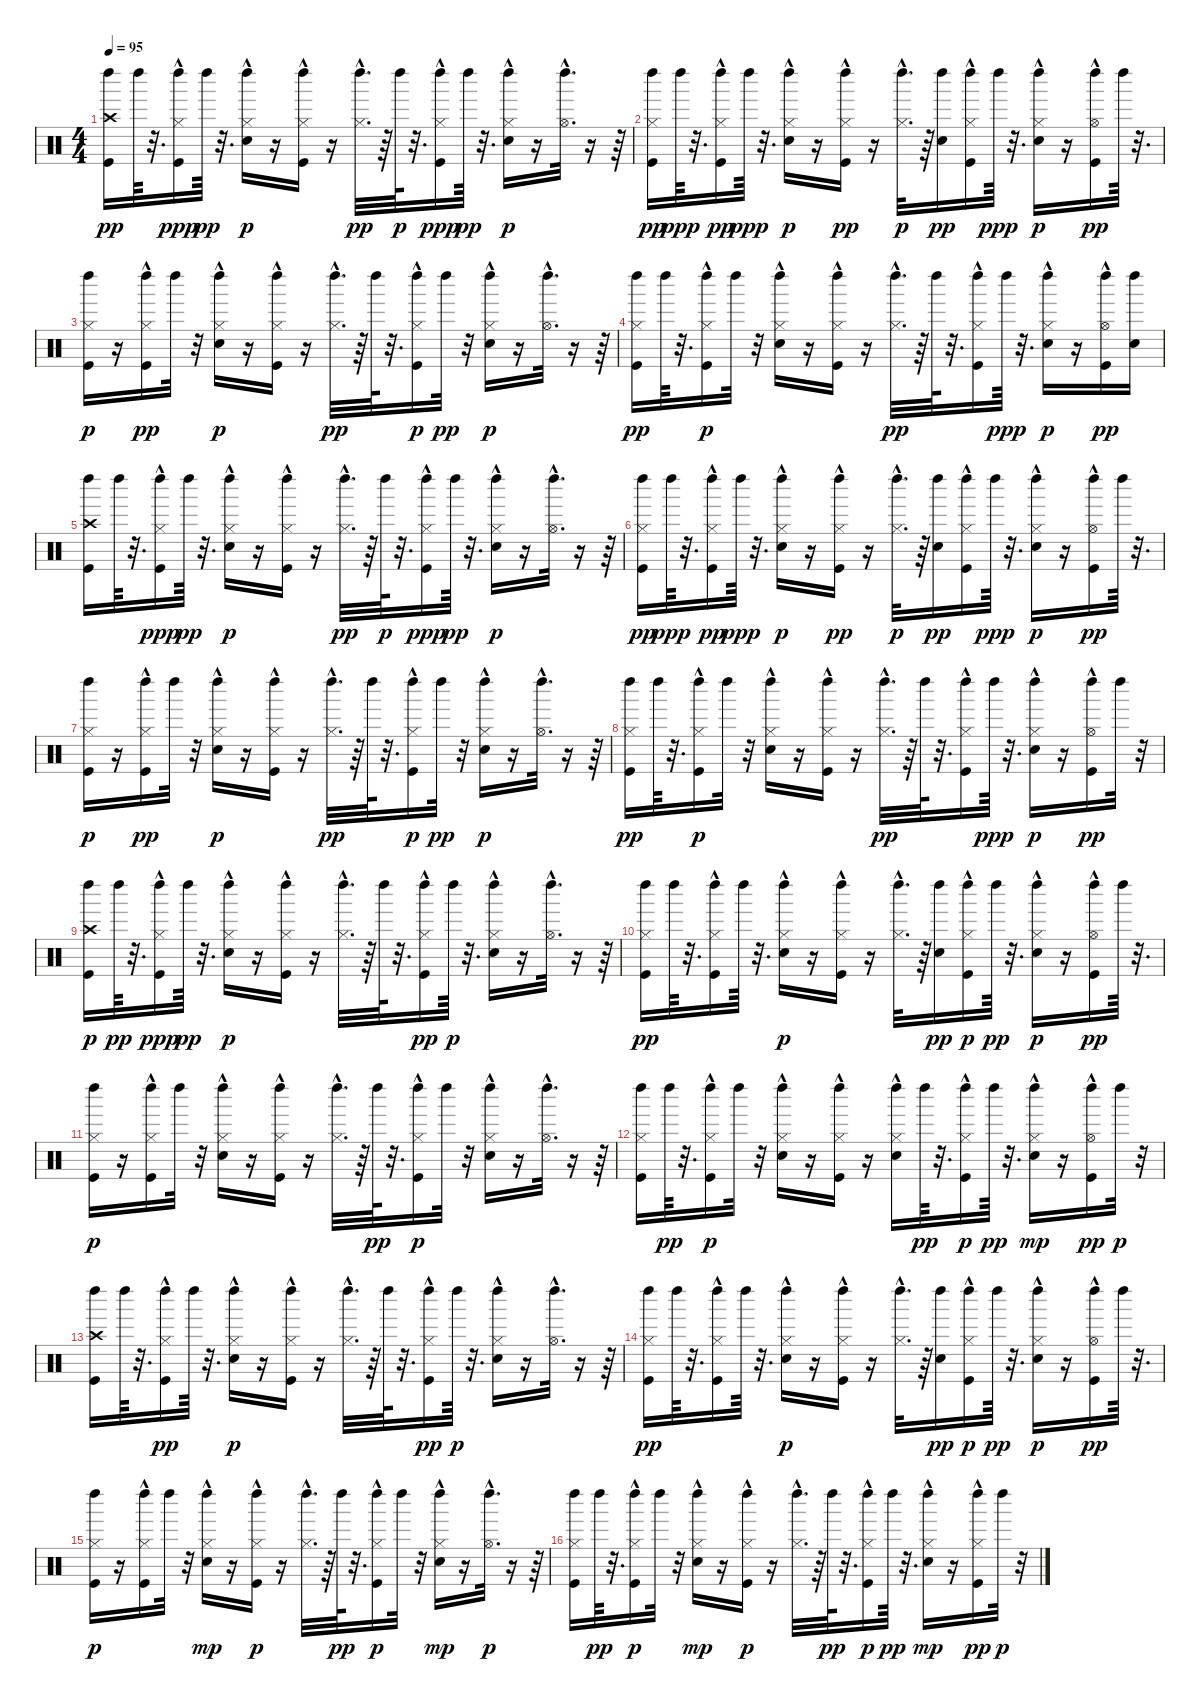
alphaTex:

\track "" {instrument percussion}
\staff {score}
\articulation defaults
\ts (4 4)
\tempo 95
\clef neutral
\ks c
("Kick (hit)" "Crash high (hit)" "Left Maraca (hit)").16{dy pp} "Left Maraca (hit)".64 r.32{d} ("Kick (hit)" "Hi-Hat (closed)"{hac} "Left Maraca (hit)").16{dy ppp} "Left Maraca (hit)".64{dy pp} r.32{d} ("Electric Snare (hit)" "Hi-Hat (closed)"{hac} "Left Maraca (hit)").16{dy p} r.16 ("Kick (hit)" "Hi-Hat (closed)"{hac} "Left Maraca (hit)").16 r.16 ("Hi-Hat (closed)"{hac} "Left Maraca (hit)").32{d dy pp} r.64 "Left Maraca (hit)".64{dy p} r.32{d} ("Kick (hit)" "Hi-Hat (closed)"{hac} "Left Maraca (hit)").16{dy ppp} "Left Maraca (hit)".64{dy pp} r.32{d} ("Electric Snare (hit)" "Hi-Hat (closed)"{hac} "Left Maraca (hit)").16{dy p} r.16 ("Hi-Hat (open)"{hac} "Left Maraca (hit)").32{d} r.16 r.64 |
("Kick (hit)" "Hi-Hat (closed)" "Left Maraca (hit)").16{dy pp} "Left Maraca (hit)".64{dy ppp} r.32{d} ("Kick (hit)" "Hi-Hat (closed)"{hac} "Left Maraca (hit)").16{dy pp} "Left Maraca (hit)".64{dy ppp} r.32{d} ("Electric Snare (hit)" "Hi-Hat (closed)"{hac} "Left Maraca (hit)").16{dy p} r.16 ("Kick (hit)" "Hi-Hat (closed)"{hac} "Left Maraca (hit)").16{dy pp} r.16 ("Hi-Hat (closed)"{hac} "Left Maraca (hit)").32{d dy p} r.64 ("Electric Snare (hit)" "Left Maraca (hit)").16{dy pp} ("Kick (hit)" "Hi-Hat (closed)"{hac} "Left Maraca (hit)").16 "Left Maraca (hit)".64{dy ppp} r.32{d} ("Electric Snare (hit)" "Hi-Hat (closed)"{hac} "Left Maraca (hit)").16{dy p} r.16 ("Kick (hit)" "Hi-Hat (open)"{hac} "Left Maraca (hit)").16{dy pp} "Left Maraca (hit)".64 r.32{d} |
("Kick (hit)" "Hi-Hat (closed)" "Left Maraca (hit)").16{dy p} r.16 ("Kick (hit)" "Hi-Hat (closed)"{hac} "Left Maraca (hit)").16{dy pp} "Left Maraca (hit)".32 r.32 ("Electric Snare (hit)" "Hi-Hat (closed)"{hac} "Left Maraca (hit)").16{dy p} r.16 ("Kick (hit)" "Hi-Hat (closed)"{hac} "Left Maraca (hit)").16 r.16 ("Hi-Hat (closed)"{hac} "Left Maraca (hit)").32{d dy pp} r.64 "Left Maraca (hit)".64 r.32{d} ("Kick (hit)" "Hi-Hat (closed)"{hac} "Left Maraca (hit)").16{dy p} "Left Maraca (hit)".32{dy pp} r.32 ("Electric Snare (hit)" "Hi-Hat (closed)"{hac} "Left Maraca (hit)").16{dy p} r.16 ("Hi-Hat (open)"{hac} "Left Maraca (hit)").32{d} r.16 r.64 |
("Kick (hit)" "Hi-Hat (closed)" "Left Maraca (hit)").16{dy pp} "Left Maraca (hit)".64 r.32{d} ("Kick (hit)" "Hi-Hat (closed)"{hac} "Left Maraca (hit)").16{dy p} "Left Maraca (hit)".32 r.32 ("Electric Snare (hit)" "Hi-Hat (closed)"{hac} "Left Maraca (hit)").16 r.16 ("Kick (hit)" "Hi-Hat (closed)"{hac} "Left Maraca (hit)").16 r.16 ("Hi-Hat (closed)"{hac} "Left Maraca (hit)").32{d dy pp} r.64 "Left Maraca (hit)".64 r.32{d} ("Kick (hit)" "Hi-Hat (closed)"{hac} "Left Maraca (hit)").16 "Left Maraca (hit)".64{dy ppp} r.32{d} ("Electric Snare (hit)" "Hi-Hat (closed)"{hac} "Left Maraca (hit)").16{dy p} r.16 ("Kick (hit)" "Hi-Hat (open)"{hac} "Left Maraca (hit)").16{dy pp} ("Electric Snare (hit)" "Left Maraca (hit)").16 |
("Kick (hit)" "Crash high (hit)" "Left Maraca (hit)").16 "Left Maraca (hit)".64 r.32{d} ("Kick (hit)" "Hi-Hat (closed)"{hac} "Left Maraca (hit)").16{dy ppp} "Left Maraca (hit)".64{dy pp} r.32{d} ("Electric Snare (hit)" "Hi-Hat (closed)"{hac} "Left Maraca (hit)").16{dy p} r.16 ("Kick (hit)" "Hi-Hat (closed)"{hac} "Left Maraca (hit)").16 r.16 ("Hi-Hat (closed)"{hac} "Left Maraca (hit)").32{d dy pp} r.64 "Left Maraca (hit)".64{dy p} r.32{d} ("Kick (hit)" "Hi-Hat (closed)"{hac} "Left Maraca (hit)").16{dy ppp} "Left Maraca (hit)".64{dy pp} r.32{d} ("Electric Snare (hit)" "Hi-Hat (closed)"{hac} "Left Maraca (hit)").16{dy p} r.16 ("Hi-Hat (open)"{hac} "Left Maraca (hit)").32{d} r.16 r.64 |
("Kick (hit)" "Hi-Hat (closed)" "Left Maraca (hit)").16{dy pp} "Left Maraca (hit)".64{dy ppp} r.32{d} ("Kick (hit)" "Hi-Hat (closed)"{hac} "Left Maraca (hit)").16{dy pp} "Left Maraca (hit)".64{dy ppp} r.32{d} ("Electric Snare (hit)" "Hi-Hat (closed)"{hac} "Left Maraca (hit)").16{dy p} r.16 ("Kick (hit)" "Hi-Hat (closed)"{hac} "Left Maraca (hit)").16{dy pp} r.16 ("Hi-Hat (closed)"{hac} "Left Maraca (hit)").32{d dy p} r.64 ("Electric Snare (hit)" "Left Maraca (hit)").16{dy pp} ("Kick (hit)" "Hi-Hat (closed)"{hac} "Left Maraca (hit)").16 "Left Maraca (hit)".64{dy ppp} r.32{d} ("Electric Snare (hit)" "Hi-Hat (closed)"{hac} "Left Maraca (hit)").16{dy p} r.16 ("Kick (hit)" "Hi-Hat (open)"{hac} "Left Maraca (hit)").16{dy pp} "Left Maraca (hit)".64 r.32{d} |
("Kick (hit)" "Hi-Hat (closed)" "Left Maraca (hit)").16{dy p} r.16 ("Kick (hit)" "Hi-Hat (closed)"{hac} "Left Maraca (hit)").16{dy pp} "Left Maraca (hit)".32 r.32 ("Electric Snare (hit)" "Hi-Hat (closed)"{hac} "Left Maraca (hit)").16{dy p} r.16 ("Kick (hit)" "Hi-Hat (closed)"{hac} "Left Maraca (hit)").16 r.16 ("Hi-Hat (closed)"{hac} "Left Maraca (hit)").32{d dy pp} r.64 "Left Maraca (hit)".64 r.32{d} ("Kick (hit)" "Hi-Hat (closed)"{hac} "Left Maraca (hit)").16{dy p} "Left Maraca (hit)".32{dy pp} r.32 ("Electric Snare (hit)" "Hi-Hat (closed)"{hac} "Left Maraca (hit)").16{dy p} r.16 ("Hi-Hat (open)"{hac} "Left Maraca (hit)").32{d} r.16 r.64 |
("Kick (hit)" "Hi-Hat (closed)" "Left Maraca (hit)").16{dy pp} "Left Maraca (hit)".64 r.32{d} ("Kick (hit)" "Hi-Hat (closed)"{hac} "Left Maraca (hit)").16{dy p} "Left Maraca (hit)".32 r.32 ("Electric Snare (hit)" "Hi-Hat (closed)"{hac} "Left Maraca (hit)").16 r.16 ("Kick (hit)" "Hi-Hat (closed)"{hac} "Left Maraca (hit)").16 r.16 ("Hi-Hat (closed)"{hac} "Left Maraca (hit)").32{d dy pp} r.64 "Left Maraca (hit)".64 r.32{d} ("Kick (hit)" "Hi-Hat (closed)"{hac} "Left Maraca (hit)").16 "Left Maraca (hit)".64{dy ppp} r.32{d} ("Electric Snare (hit)" "Hi-Hat (closed)"{hac} "Left Maraca (hit)").16{dy p} r.16 ("Kick (hit)" "Hi-Hat (open)"{hac} "Left Maraca (hit)").16{dy pp} "Left Maraca (hit)".32 r.32 |
("Kick (hit)" "Crash high (hit)" "Left Maraca (hit)").16{dy p} "Left Maraca (hit)".64{dy pp} r.32{d} ("Kick (hit)" "Hi-Hat (closed)"{hac} "Left Maraca (hit)").16{dy ppp} "Left Maraca (hit)".64{dy pp} r.32{d} ("Electric Snare (hit)" "Hi-Hat (closed)"{hac} "Left Maraca (hit)").16{dy p} r.16 ("Kick (hit)" "Hi-Hat (closed)"{hac} "Left Maraca (hit)").16 r.16 ("Hi-Hat (closed)"{hac} "Left Maraca (hit)").32{d} r.64 "Left Maraca (hit)".64 r.32{d} ("Kick (hit)" "Hi-Hat (closed)"{hac} "Left Maraca (hit)").16{dy pp} "Left Maraca (hit)".64{dy p} r.32{d} ("Electric Snare (hit)" "Hi-Hat (closed)"{hac} "Left Maraca (hit)").16 r.16 ("Hi-Hat (open)"{hac} "Left Maraca (hit)").32{d} r.16 r.64 |
("Kick (hit)" "Hi-Hat (closed)" "Left Maraca (hit)").16{dy pp} "Left Maraca (hit)".64 r.32{d} ("Kick (hit)" "Hi-Hat (closed)"{hac} "Left Maraca (hit)").16 "Left Maraca (hit)".64 r.32{d} ("Electric Snare (hit)" "Hi-Hat (closed)"{hac} "Left Maraca (hit)").16{dy p} r.16 ("Kick (hit)" "Hi-Hat (closed)"{hac} "Left Maraca (hit)").16 r.16 ("Hi-Hat (closed)"{hac} "Left Maraca (hit)").32{d} r.64 ("Electric Snare (hit)" "Left Maraca (hit)").16{dy pp} ("Kick (hit)" "Hi-Hat (closed)"{hac} "Left Maraca (hit)").16{dy p} "Left Maraca (hit)".64{dy pp} r.32{d} ("Electric Snare (hit)" "Hi-Hat (closed)"{hac} "Left Maraca (hit)").16{dy p} r.16 ("Kick (hit)" "Hi-Hat (open)"{hac} "Left Maraca (hit)").16{dy pp} "Left Maraca (hit)".64 r.32{d} |
("Kick (hit)" "Hi-Hat (closed)" "Left Maraca (hit)").16{dy p} r.16 ("Kick (hit)" "Hi-Hat (closed)"{hac} "Left Maraca (hit)").16 "Left Maraca (hit)".32 r.32 ("Electric Snare (hit)" "Hi-Hat (closed)"{hac} "Left Maraca (hit)").16 r.16 ("Kick (hit)" "Hi-Hat (closed)"{hac} "Left Maraca (hit)").16 r.16 ("Hi-Hat (closed)"{hac} "Left Maraca (hit)").32{d} r.64 "Left Maraca (hit)".64{dy pp} r.32{d} ("Kick (hit)" "Hi-Hat (closed)"{hac} "Left Maraca (hit)").16{dy p} "Left Maraca (hit)".32 r.32 ("Electric Snare (hit)" "Hi-Hat (closed)"{hac} "Left Maraca (hit)").16 r.16 ("Hi-Hat (open)"{hac} "Left Maraca (hit)").32{d} r.16 r.64 |
("Kick (hit)" "Hi-Hat (closed)" "Left Maraca (hit)").16 "Left Maraca (hit)".64{dy pp} r.32{d} ("Kick (hit)" "Hi-Hat (closed)"{hac} "Left Maraca (hit)").16{dy p} "Left Maraca (hit)".32 r.32 ("Electric Snare (hit)" "Hi-Hat (closed)"{hac} "Left Maraca (hit)").16 r.16 ("Kick (hit)" "Hi-Hat (closed)"{hac} "Left Maraca (hit)").16 r.16 ("Electric Snare (hit)" "Hi-Hat (closed)"{hac} "Left Maraca (hit)").16 "Left Maraca (hit)".64{dy pp} r.32{d} ("Kick (hit)" "Hi-Hat (closed)"{hac} "Left Maraca (hit)").16{dy p} "Left Maraca (hit)".64{dy pp} r.32{d} ("Electric Snare (hit)" "Hi-Hat (closed)"{hac} "Left Maraca (hit)").16{dy mp} r.16 ("Kick (hit)" "Hi-Hat (open)"{hac} "Left Maraca (hit)").16{dy pp} "Left Maraca (hit)".32{dy p} r.32 |
("Kick (hit)" "Crash high (hit)" "Left Maraca (hit)").16 "Left Maraca (hit)".64 r.32{d} ("Kick (hit)" "Hi-Hat (closed)"{hac} "Left Maraca (hit)").16{dy pp} "Left Maraca (hit)".64 r.32{d} ("Electric Snare (hit)" "Hi-Hat (closed)"{hac} "Left Maraca (hit)").16{dy p} r.16 ("Kick (hit)" "Hi-Hat (closed)"{hac} "Left Maraca (hit)").16 r.16 ("Hi-Hat (closed)"{hac} "Left Maraca (hit)").32{d} r.64 "Left Maraca (hit)".64 r.32{d} ("Kick (hit)" "Hi-Hat (closed)"{hac} "Left Maraca (hit)").16{dy pp} "Left Maraca (hit)".64{dy p} r.32{d} ("Electric Snare (hit)" "Hi-Hat (closed)"{hac} "Left Maraca (hit)").16 r.16 ("Hi-Hat (open)"{hac} "Left Maraca (hit)").32{d} r.16 r.64 |
("Kick (hit)" "Hi-Hat (closed)" "Left Maraca (hit)").16{dy pp} "Left Maraca (hit)".64 r.32{d} ("Kick (hit)" "Hi-Hat (closed)"{hac} "Left Maraca (hit)").16 "Left Maraca (hit)".64 r.32{d} ("Electric Snare (hit)" "Hi-Hat (closed)"{hac} "Left Maraca (hit)").16{dy p} r.16 ("Kick (hit)" "Hi-Hat (closed)"{hac} "Left Maraca (hit)").16 r.16 ("Hi-Hat (closed)"{hac} "Left Maraca (hit)").32{d} r.64 ("Electric Snare (hit)" "Left Maraca (hit)").16{dy pp} ("Kick (hit)" "Hi-Hat (closed)"{hac} "Left Maraca (hit)").16{dy p} "Left Maraca (hit)".64{dy pp} r.32{d} ("Electric Snare (hit)" "Hi-Hat (closed)"{hac} "Left Maraca (hit)").16{dy p} r.16 ("Kick (hit)" "Hi-Hat (open)"{hac} "Left Maraca (hit)").16{dy pp} "Left Maraca (hit)".64 r.32{d} |
("Kick (hit)" "Hi-Hat (closed)" "Left Maraca (hit)").16{dy p} r.16 ("Kick (hit)" "Hi-Hat (closed)"{hac} "Left Maraca (hit)").16 "Left Maraca (hit)".32 r.32 ("Electric Snare (hit)" "Hi-Hat (closed)"{hac} "Left Maraca (hit)").16{dy mp} r.16 ("Kick (hit)" "Hi-Hat (closed)"{hac} "Left Maraca (hit)").16{dy p} r.16 ("Hi-Hat (closed)"{hac} "Left Maraca (hit)").32{d} r.64 "Left Maraca (hit)".64{dy pp} r.32{d} ("Kick (hit)" "Hi-Hat (closed)"{hac} "Left Maraca (hit)").16{dy p} "Left Maraca (hit)".32 r.32 ("Electric Snare (hit)" "Hi-Hat (closed)"{hac} "Left Maraca (hit)").16{dy mp} r.16 ("Hi-Hat (open)"{hac} "Left Maraca (hit)").32{d dy p} r.16 r.64 |
("Kick (hit)" "Hi-Hat (closed)" "Left Maraca (hit)").16 "Left Maraca (hit)".64{dy pp} r.32{d} ("Kick (hit)" "Hi-Hat (closed)"{hac} "Left Maraca (hit)").16{dy p} "Left Maraca (hit)".32 r.32 ("Electric Snare (hit)" "Hi-Hat (closed)"{hac} "Left Maraca (hit)").16{dy mp} r.16 ("Kick (hit)" "Hi-Hat (closed)"{hac} "Left Maraca (hit)").16{dy p} r.16 ("Hi-Hat (closed)"{hac} "Left Maraca (hit)").32{d} r.64 "Left Maraca (hit)".64{dy pp} r.32{d} ("Kick (hit)" "Hi-Hat (closed)"{hac} "Left Maraca (hit)").16{dy p} "Left Maraca (hit)".64{dy pp} r.32{d} ("Electric Snare (hit)" "Hi-Hat (closed)"{hac} "Left Maraca (hit)").16{dy mp} r.16 ("Kick (hit)" "Hi-Hat (closed)"{hac} "Left Maraca (hit)").16{dy pp} "Left Maraca (hit)".32{dy p} r.32
